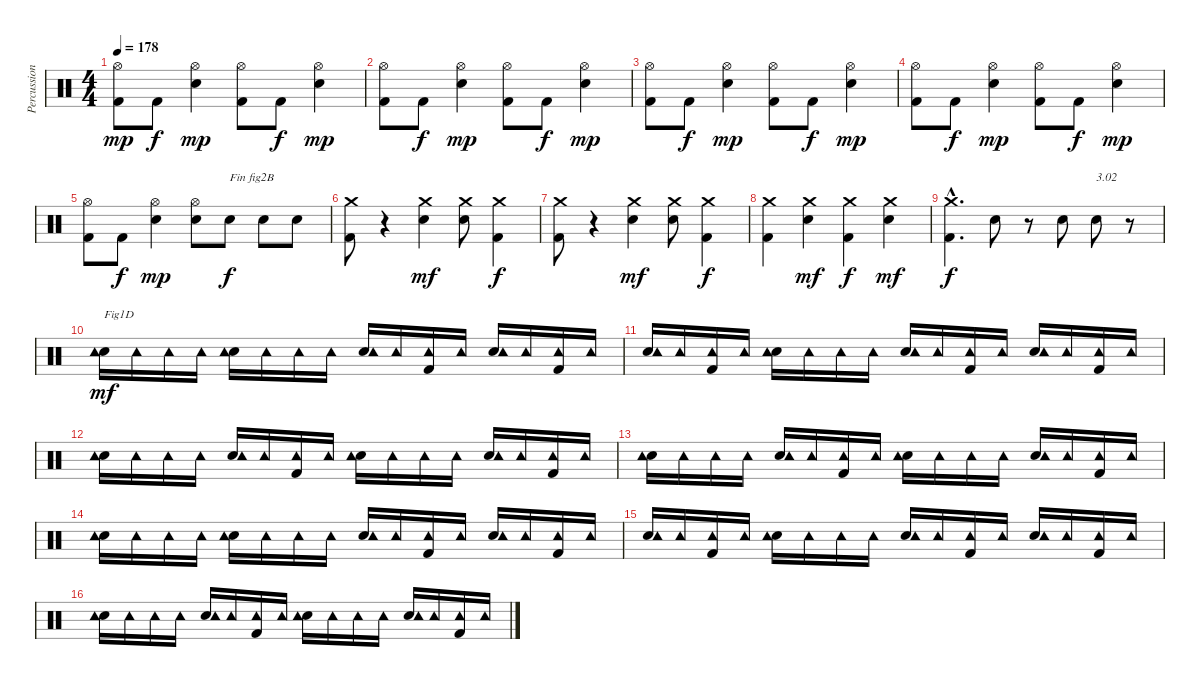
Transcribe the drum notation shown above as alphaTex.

\track ("Percussions" "Percussion") {instrument percussion}
\staff {score}
\articulation defaults
\ts (4 4)
\tempo 178
\clef neutral
\ks c
("Kick (hit) 2" "Hi-Hat (open)").8{dy mp} "Kick (hit) 2".8{dy f} ("Electric Snare (hit)" "Hi-Hat (open)").4{dy mp} ("Kick (hit) 2" "Hi-Hat (open)").8 "Kick (hit) 2".8{dy f} ("Electric Snare (hit)" "Hi-Hat (open)").4{dy mp} |
("Kick (hit) 2" "Hi-Hat (open)").8 "Kick (hit) 2".8{dy f} ("Electric Snare (hit)" "Hi-Hat (open)").4{dy mp} ("Kick (hit) 2" "Hi-Hat (open)").8 "Kick (hit) 2".8{dy f} ("Electric Snare (hit)" "Hi-Hat (open)").4{dy mp} |
("Kick (hit) 2" "Hi-Hat (open)").8 "Kick (hit) 2".8{dy f} ("Electric Snare (hit)" "Hi-Hat (open)").4{dy mp} ("Kick (hit) 2" "Hi-Hat (open)").8 "Kick (hit) 2".8{dy f} ("Electric Snare (hit)" "Hi-Hat (open)").4{dy mp} |
("Kick (hit) 2" "Hi-Hat (open)").8 "Kick (hit) 2".8{dy f} ("Electric Snare (hit)" "Hi-Hat (open)").4{dy mp} ("Kick (hit) 2" "Hi-Hat (open)").8 "Kick (hit) 2".8{dy f} ("Electric Snare (hit)" "Hi-Hat (open)").4{dy mp} |
("Kick (hit) 2" "Hi-Hat (open)").8 "Kick (hit) 2".8{dy f} ("Electric Snare (hit)" "Hi-Hat (open)").4{dy mp} ("Electric Snare (hit)" "Hi-Hat (open)").8 "Electric Snare (hit)".8{txt "Fin fig2B" dy f} "Electric Snare (hit)".8 "Electric Snare (hit)".8 |
("Kick (hit) 2" "Crash medium (hit)").8 r.4 ("Electric Snare (hit)" "Crash medium (hit)").4{dy mf} ("Electric Snare (hit)" "Crash medium (hit)").8 ("Kick (hit) 2" "Crash medium (hit)").4{dy f} |
("Kick (hit) 2" "Crash medium (hit)").8 r.4 ("Electric Snare (hit)" "Crash medium (hit)").4{dy mf} ("Electric Snare (hit)" "Crash medium (hit)").8 ("Kick (hit) 2" "Crash medium (hit)").4{dy f} |
("Kick (hit) 2" "Crash medium (hit)").4 ("Electric Snare (hit)" "Crash medium (hit)").4{dy mf} ("Kick (hit) 2" "Crash medium (hit)").4{dy f} ("Electric Snare (hit)" "Crash medium (hit)").4{dy mf} |
("Kick (hit) 2"{hac} "Crash medium (hit)"{hac}).4{d dy f} "Electric Snare (hit)".8 r.8 "Electric Snare (hit)".8 "Electric Snare (hit)".8{txt "3.02"} r.8 |
("Electric Snare (hit)" "Tambourine (hit)").16{txt "Fig1D" dy mf} "Tambourine (hit)".16 "Tambourine (hit)".16 "Tambourine (hit)".16 ("Electric Snare (hit)" "Tambourine (hit)").16 "Tambourine (hit)".16 "Tambourine (hit)".16 "Tambourine (hit)".16 ("Electric Snare (hit)" "Tambourine (hit)").16 "Tambourine (hit)".16 ("Kick (hit) 2" "Tambourine (hit)").16 "Tambourine (hit)".16 ("Electric Snare (hit)" "Tambourine (hit)").16 "Tambourine (hit)".16 ("Kick (hit) 2" "Tambourine (hit)").16 "Tambourine (hit)".16 |
("Electric Snare (hit)" "Tambourine (hit)").16 "Tambourine (hit)".16 ("Kick (hit) 2" "Tambourine (hit)").16 "Tambourine (hit)".16 ("Electric Snare (hit)" "Tambourine (hit)").16 "Tambourine (hit)".16 "Tambourine (hit)".16 "Tambourine (hit)".16 ("Electric Snare (hit)" "Tambourine (hit)").16 "Tambourine (hit)".16 ("Kick (hit) 2" "Tambourine (hit)").16 "Tambourine (hit)".16 ("Electric Snare (hit)" "Tambourine (hit)").16 "Tambourine (hit)".16 ("Kick (hit) 2" "Tambourine (hit)").16 "Tambourine (hit)".16 |
("Electric Snare (hit)" "Tambourine (hit)").16 "Tambourine (hit)".16 "Tambourine (hit)".16 "Tambourine (hit)".16 ("Electric Snare (hit)" "Tambourine (hit)").16 "Tambourine (hit)".16 ("Kick (hit) 2" "Tambourine (hit)").16 "Tambourine (hit)".16 ("Electric Snare (hit)" "Tambourine (hit)").16 "Tambourine (hit)".16 "Tambourine (hit)".16 "Tambourine (hit)".16 ("Electric Snare (hit)" "Tambourine (hit)").16 "Tambourine (hit)".16 ("Kick (hit) 2" "Tambourine (hit)").16 "Tambourine (hit)".16 |
("Electric Snare (hit)" "Tambourine (hit)").16 "Tambourine (hit)".16 "Tambourine (hit)".16 "Tambourine (hit)".16 ("Electric Snare (hit)" "Tambourine (hit)").16 "Tambourine (hit)".16 ("Kick (hit) 2" "Tambourine (hit)").16 "Tambourine (hit)".16 ("Electric Snare (hit)" "Tambourine (hit)").16 "Tambourine (hit)".16 "Tambourine (hit)".16 "Tambourine (hit)".16 ("Electric Snare (hit)" "Tambourine (hit)").16 "Tambourine (hit)".16 ("Kick (hit) 2" "Tambourine (hit)").16 "Tambourine (hit)".16 |
("Electric Snare (hit)" "Tambourine (hit)").16 "Tambourine (hit)".16 "Tambourine (hit)".16 "Tambourine (hit)".16 ("Electric Snare (hit)" "Tambourine (hit)").16 "Tambourine (hit)".16 "Tambourine (hit)".16 "Tambourine (hit)".16 ("Electric Snare (hit)" "Tambourine (hit)").16 "Tambourine (hit)".16 ("Kick (hit) 2" "Tambourine (hit)").16 "Tambourine (hit)".16 ("Electric Snare (hit)" "Tambourine (hit)").16 "Tambourine (hit)".16 ("Kick (hit) 2" "Tambourine (hit)").16 "Tambourine (hit)".16 |
("Electric Snare (hit)" "Tambourine (hit)").16 "Tambourine (hit)".16 ("Kick (hit) 2" "Tambourine (hit)").16 "Tambourine (hit)".16 ("Electric Snare (hit)" "Tambourine (hit)").16 "Tambourine (hit)".16 "Tambourine (hit)".16 "Tambourine (hit)".16 ("Electric Snare (hit)" "Tambourine (hit)").16 "Tambourine (hit)".16 ("Kick (hit) 2" "Tambourine (hit)").16 "Tambourine (hit)".16 ("Electric Snare (hit)" "Tambourine (hit)").16 "Tambourine (hit)".16 ("Kick (hit) 2" "Tambourine (hit)").16 "Tambourine (hit)".16 |
("Electric Snare (hit)" "Tambourine (hit)").16 "Tambourine (hit)".16 "Tambourine (hit)".16 "Tambourine (hit)".16 ("Electric Snare (hit)" "Tambourine (hit)").16 "Tambourine (hit)".16 ("Kick (hit) 2" "Tambourine (hit)").16 "Tambourine (hit)".16 ("Electric Snare (hit)" "Tambourine (hit)").16 "Tambourine (hit)".16 "Tambourine (hit)".16 "Tambourine (hit)".16 ("Electric Snare (hit)" "Tambourine (hit)").16 "Tambourine (hit)".16 ("Kick (hit) 2" "Tambourine (hit)").16 "Tambourine (hit)".16
